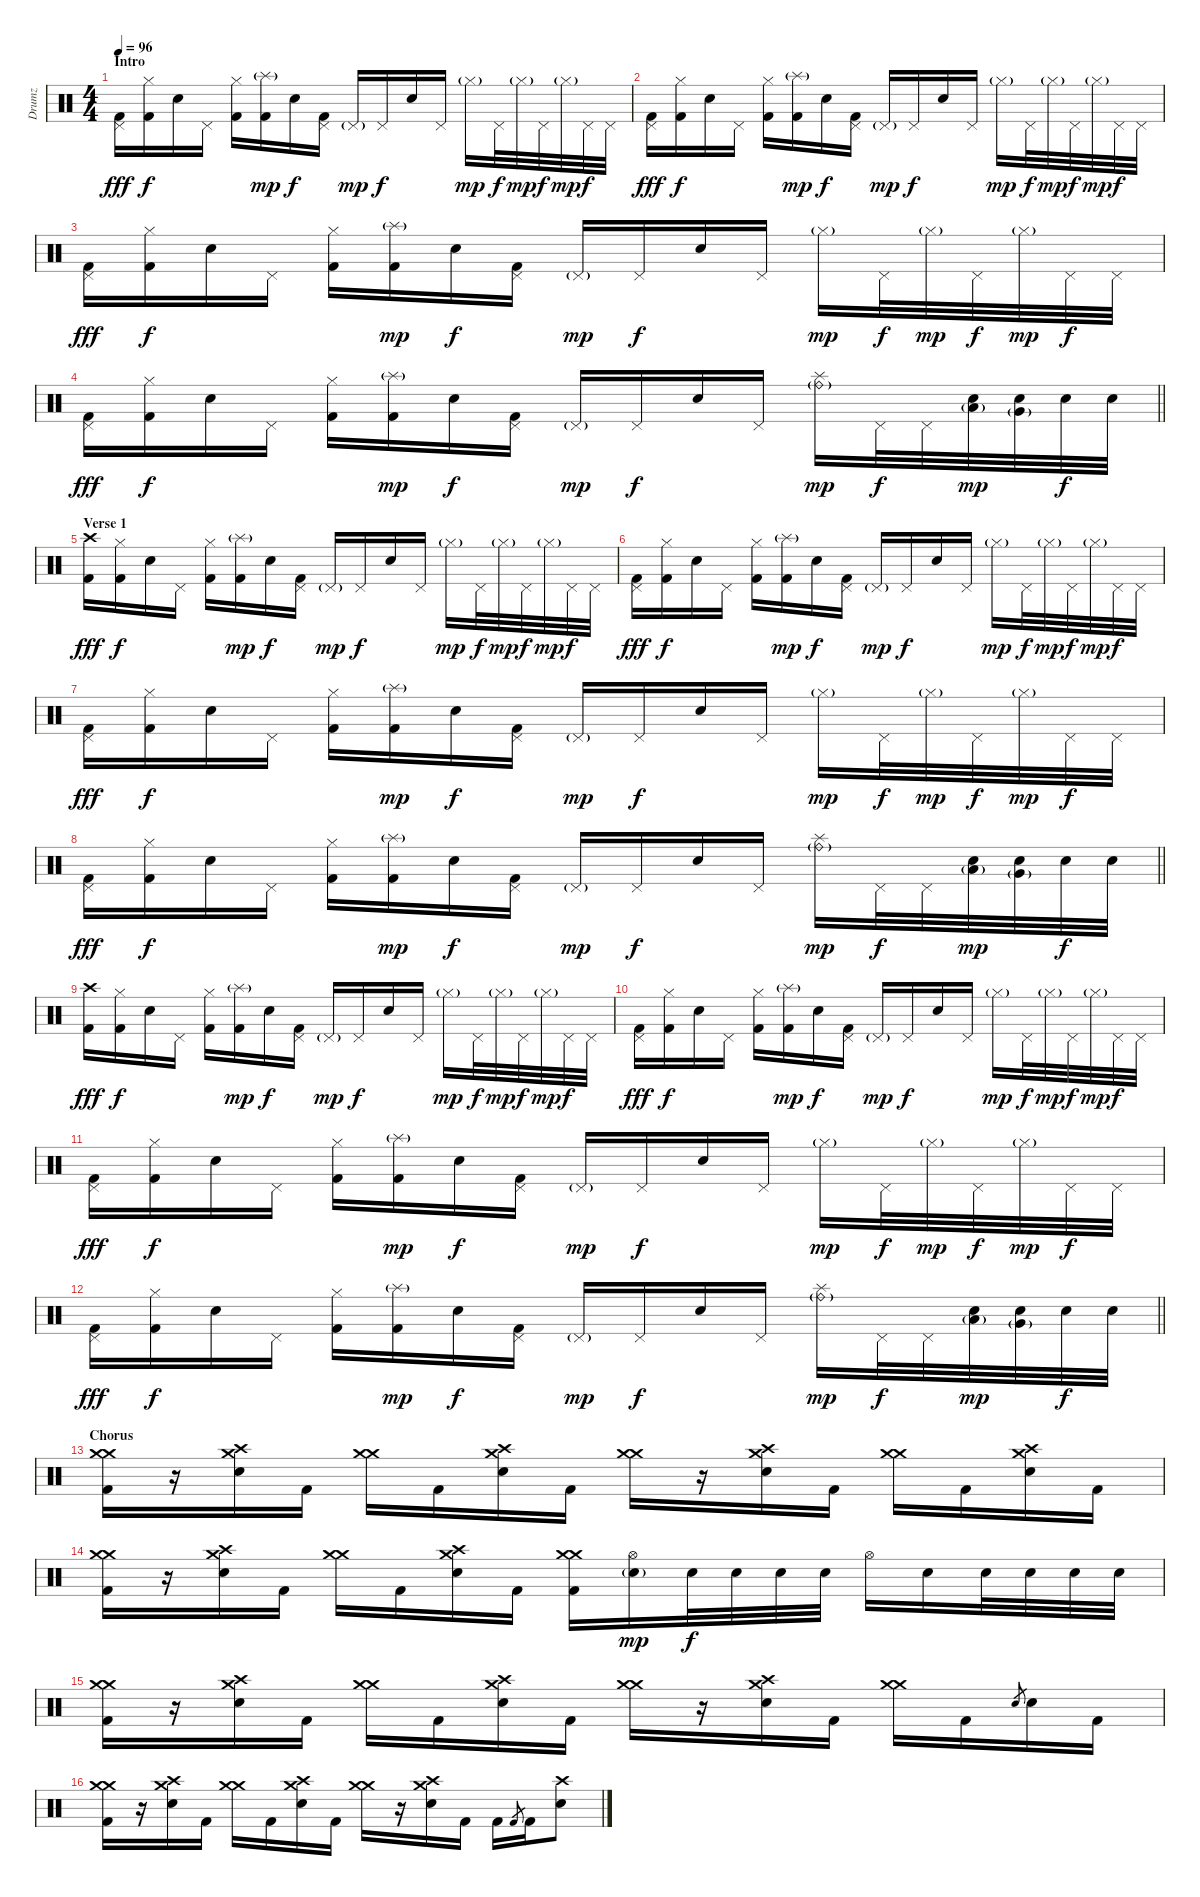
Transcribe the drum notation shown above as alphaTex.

\track ("Drumz" "Drumz") {instrument percussion}
\staff {score}
\articulation defaults
\ts (4 4)
\section ("" "Intro")
\tempo 96
\clef neutral
\ks c
("Pedal Hi-Hat (hit)" "Kick (hit) 2").16{dy fff} ("Hi-Hat (closed)" "Kick (hit) 2").16{dy f} "Electric Snare (hit)".16 "Pedal Hi-Hat (hit)".16 ("Hi-Hat (closed)" "Kick (hit) 2").16 ("Splash (hit)"{g} "Kick (hit) 2").16{dy mp} "Electric Snare (hit)".16{dy f} ("Pedal Hi-Hat (hit)" "Kick (hit) 2").16 "Pedal Hi-Hat (hit)"{g}.16{dy mp} "Pedal Hi-Hat (hit)".16{dy f} "Electric Snare (hit)".16 "Pedal Hi-Hat (hit)".16 "Hi-Hat (closed)"{g}.16{dy mp} "Pedal Hi-Hat (hit)".32{dy f} "Hi-Hat (closed)"{g}.32{dy mp} "Pedal Hi-Hat (hit)".32{dy f} "Hi-Hat (closed)"{g}.32{dy mp} "Pedal Hi-Hat (hit)".32{dy f} "Pedal Hi-Hat (hit)".32 |
("Pedal Hi-Hat (hit)" "Kick (hit) 2").16{dy fff} ("Hi-Hat (closed)" "Kick (hit) 2").16{dy f} "Electric Snare (hit)".16 "Pedal Hi-Hat (hit)".16 ("Hi-Hat (closed)" "Kick (hit) 2").16 ("Splash (hit)"{g} "Kick (hit) 2").16{dy mp} "Electric Snare (hit)".16{dy f} ("Pedal Hi-Hat (hit)" "Kick (hit) 2").16 "Pedal Hi-Hat (hit)"{g}.16{dy mp} "Pedal Hi-Hat (hit)".16{dy f} "Electric Snare (hit)".16 "Pedal Hi-Hat (hit)".16 "Hi-Hat (closed)"{g}.16{dy mp} "Pedal Hi-Hat (hit)".32{dy f} "Hi-Hat (closed)"{g}.32{dy mp} "Pedal Hi-Hat (hit)".32{dy f} "Hi-Hat (closed)"{g}.32{dy mp} "Pedal Hi-Hat (hit)".32{dy f} "Pedal Hi-Hat (hit)".32 |
("Pedal Hi-Hat (hit)" "Kick (hit) 2").16{dy fff} ("Hi-Hat (closed)" "Kick (hit) 2").16{dy f} "Electric Snare (hit)".16 "Pedal Hi-Hat (hit)".16 ("Hi-Hat (closed)" "Kick (hit) 2").16 ("Splash (hit)"{g} "Kick (hit) 2").16{dy mp} "Electric Snare (hit)".16{dy f} ("Pedal Hi-Hat (hit)" "Kick (hit) 2").16 "Pedal Hi-Hat (hit)"{g}.16{dy mp} "Pedal Hi-Hat (hit)".16{dy f} "Electric Snare (hit)".16 "Pedal Hi-Hat (hit)".16 "Hi-Hat (closed)"{g}.16{dy mp} "Pedal Hi-Hat (hit)".32{dy f} "Hi-Hat (closed)"{g}.32{dy mp} "Pedal Hi-Hat (hit)".32{dy f} "Hi-Hat (closed)"{g}.32{dy mp} "Pedal Hi-Hat (hit)".32{dy f} "Pedal Hi-Hat (hit)".32 |
\barLineRight lightlight
("Pedal Hi-Hat (hit)" "Kick (hit) 2").16{dy fff} ("Hi-Hat (closed)" "Kick (hit) 2").16{dy f} "Electric Snare (hit)".16 "Pedal Hi-Hat (hit)".16 ("Hi-Hat (closed)" "Kick (hit) 2").16 ("Splash (hit)"{g} "Kick (hit) 2").16{dy mp} "Electric Snare (hit)".16{dy f} ("Pedal Hi-Hat (hit)" "Kick (hit) 2").16 "Pedal Hi-Hat (hit)"{g}.16{dy mp} "Pedal Hi-Hat (hit)".16{dy f} "Electric Snare (hit)".16 "Pedal Hi-Hat (hit)".16 ("Ride (bell)"{g} "Splash (hit)").16{dy mp} "Pedal Hi-Hat (hit)".32{dy f} "Pedal Hi-Hat (hit)".32 ("Low Floor Tom (hit)"{g} "Electric Snare (hit)").32{dy mp} ("Very Low Tom (hit)"{g} "Electric Snare (hit)").32 "Electric Snare (hit)".32{dy f} "Electric Snare (hit)".32 |
\section ("" "Verse 1")
("Crash high (hit)" "Kick (hit) 2").16{dy fff} ("Hi-Hat (closed)" "Kick (hit) 2").16{dy f} "Electric Snare (hit)".16 "Pedal Hi-Hat (hit)".16 ("Hi-Hat (closed)" "Kick (hit) 2").16 ("Splash (hit)"{g} "Kick (hit) 2").16{dy mp} "Electric Snare (hit)".16{dy f} ("Pedal Hi-Hat (hit)" "Kick (hit) 2").16 "Pedal Hi-Hat (hit)"{g}.16{dy mp} "Pedal Hi-Hat (hit)".16{dy f} "Electric Snare (hit)".16 "Pedal Hi-Hat (hit)".16 "Hi-Hat (closed)"{g}.16{dy mp} "Pedal Hi-Hat (hit)".32{dy f} "Hi-Hat (closed)"{g}.32{dy mp} "Pedal Hi-Hat (hit)".32{dy f} "Hi-Hat (closed)"{g}.32{dy mp} "Pedal Hi-Hat (hit)".32{dy f} "Pedal Hi-Hat (hit)".32 |
("Pedal Hi-Hat (hit)" "Kick (hit) 2").16{dy fff} ("Hi-Hat (closed)" "Kick (hit) 2").16{dy f} "Electric Snare (hit)".16 "Pedal Hi-Hat (hit)".16 ("Hi-Hat (closed)" "Kick (hit) 2").16 ("Splash (hit)"{g} "Kick (hit) 2").16{dy mp} "Electric Snare (hit)".16{dy f} ("Pedal Hi-Hat (hit)" "Kick (hit) 2").16 "Pedal Hi-Hat (hit)"{g}.16{dy mp} "Pedal Hi-Hat (hit)".16{dy f} "Electric Snare (hit)".16 "Pedal Hi-Hat (hit)".16 "Hi-Hat (closed)"{g}.16{dy mp} "Pedal Hi-Hat (hit)".32{dy f} "Hi-Hat (closed)"{g}.32{dy mp} "Pedal Hi-Hat (hit)".32{dy f} "Hi-Hat (closed)"{g}.32{dy mp} "Pedal Hi-Hat (hit)".32{dy f} "Pedal Hi-Hat (hit)".32 |
("Pedal Hi-Hat (hit)" "Kick (hit) 2").16{dy fff} ("Hi-Hat (closed)" "Kick (hit) 2").16{dy f} "Electric Snare (hit)".16 "Pedal Hi-Hat (hit)".16 ("Hi-Hat (closed)" "Kick (hit) 2").16 ("Splash (hit)"{g} "Kick (hit) 2").16{dy mp} "Electric Snare (hit)".16{dy f} ("Pedal Hi-Hat (hit)" "Kick (hit) 2").16 "Pedal Hi-Hat (hit)"{g}.16{dy mp} "Pedal Hi-Hat (hit)".16{dy f} "Electric Snare (hit)".16 "Pedal Hi-Hat (hit)".16 "Hi-Hat (closed)"{g}.16{dy mp} "Pedal Hi-Hat (hit)".32{dy f} "Hi-Hat (closed)"{g}.32{dy mp} "Pedal Hi-Hat (hit)".32{dy f} "Hi-Hat (closed)"{g}.32{dy mp} "Pedal Hi-Hat (hit)".32{dy f} "Pedal Hi-Hat (hit)".32 |
\barLineRight lightlight
("Pedal Hi-Hat (hit)" "Kick (hit) 2").16{dy fff} ("Hi-Hat (closed)" "Kick (hit) 2").16{dy f} "Electric Snare (hit)".16 "Pedal Hi-Hat (hit)".16 ("Hi-Hat (closed)" "Kick (hit) 2").16 ("Splash (hit)"{g} "Kick (hit) 2").16{dy mp} "Electric Snare (hit)".16{dy f} ("Pedal Hi-Hat (hit)" "Kick (hit) 2").16 "Pedal Hi-Hat (hit)"{g}.16{dy mp} "Pedal Hi-Hat (hit)".16{dy f} "Electric Snare (hit)".16 "Pedal Hi-Hat (hit)".16 ("Ride (bell)"{g} "Splash (hit)").16{dy mp} "Pedal Hi-Hat (hit)".32{dy f} "Pedal Hi-Hat (hit)".32 ("Low Floor Tom (hit)"{g} "Electric Snare (hit)").32{dy mp} ("Very Low Tom (hit)"{g} "Electric Snare (hit)").32 "Electric Snare (hit)".32{dy f} "Electric Snare (hit)".32 |
("Crash high (hit)" "Kick (hit) 2").16{dy fff} ("Hi-Hat (closed)" "Kick (hit) 2").16{dy f} "Electric Snare (hit)".16 "Pedal Hi-Hat (hit)".16 ("Hi-Hat (closed)" "Kick (hit) 2").16 ("Splash (hit)"{g} "Kick (hit) 2").16{dy mp} "Electric Snare (hit)".16{dy f} ("Pedal Hi-Hat (hit)" "Kick (hit) 2").16 "Pedal Hi-Hat (hit)"{g}.16{dy mp} "Pedal Hi-Hat (hit)".16{dy f} "Electric Snare (hit)".16 "Pedal Hi-Hat (hit)".16 "Hi-Hat (closed)"{g}.16{dy mp} "Pedal Hi-Hat (hit)".32{dy f} "Hi-Hat (closed)"{g}.32{dy mp} "Pedal Hi-Hat (hit)".32{dy f} "Hi-Hat (closed)"{g}.32{dy mp} "Pedal Hi-Hat (hit)".32{dy f} "Pedal Hi-Hat (hit)".32 |
("Pedal Hi-Hat (hit)" "Kick (hit) 2").16{dy fff} ("Hi-Hat (closed)" "Kick (hit) 2").16{dy f} "Electric Snare (hit)".16 "Pedal Hi-Hat (hit)".16 ("Hi-Hat (closed)" "Kick (hit) 2").16 ("Splash (hit)"{g} "Kick (hit) 2").16{dy mp} "Electric Snare (hit)".16{dy f} ("Pedal Hi-Hat (hit)" "Kick (hit) 2").16 "Pedal Hi-Hat (hit)"{g}.16{dy mp} "Pedal Hi-Hat (hit)".16{dy f} "Electric Snare (hit)".16 "Pedal Hi-Hat (hit)".16 "Hi-Hat (closed)"{g}.16{dy mp} "Pedal Hi-Hat (hit)".32{dy f} "Hi-Hat (closed)"{g}.32{dy mp} "Pedal Hi-Hat (hit)".32{dy f} "Hi-Hat (closed)"{g}.32{dy mp} "Pedal Hi-Hat (hit)".32{dy f} "Pedal Hi-Hat (hit)".32 |
("Pedal Hi-Hat (hit)" "Kick (hit) 2").16{dy fff} ("Hi-Hat (closed)" "Kick (hit) 2").16{dy f} "Electric Snare (hit)".16 "Pedal Hi-Hat (hit)".16 ("Hi-Hat (closed)" "Kick (hit) 2").16 ("Splash (hit)"{g} "Kick (hit) 2").16{dy mp} "Electric Snare (hit)".16{dy f} ("Pedal Hi-Hat (hit)" "Kick (hit) 2").16 "Pedal Hi-Hat (hit)"{g}.16{dy mp} "Pedal Hi-Hat (hit)".16{dy f} "Electric Snare (hit)".16 "Pedal Hi-Hat (hit)".16 "Hi-Hat (closed)"{g}.16{dy mp} "Pedal Hi-Hat (hit)".32{dy f} "Hi-Hat (closed)"{g}.32{dy mp} "Pedal Hi-Hat (hit)".32{dy f} "Hi-Hat (closed)"{g}.32{dy mp} "Pedal Hi-Hat (hit)".32{dy f} "Pedal Hi-Hat (hit)".32 |
\barLineRight lightlight
("Pedal Hi-Hat (hit)" "Kick (hit) 2").16{dy fff} ("Hi-Hat (closed)" "Kick (hit) 2").16{dy f} "Electric Snare (hit)".16 "Pedal Hi-Hat (hit)".16 ("Hi-Hat (closed)" "Kick (hit) 2").16 ("Splash (hit)"{g} "Kick (hit) 2").16{dy mp} "Electric Snare (hit)".16{dy f} ("Pedal Hi-Hat (hit)" "Kick (hit) 2").16 "Pedal Hi-Hat (hit)"{g}.16{dy mp} "Pedal Hi-Hat (hit)".16{dy f} "Electric Snare (hit)".16 "Pedal Hi-Hat (hit)".16 ("Ride (bell)"{g} "Splash (hit)").16{dy mp} "Pedal Hi-Hat (hit)".32{dy f} "Pedal Hi-Hat (hit)".32 ("Low Floor Tom (hit)"{g} "Electric Snare (hit)").32{dy mp} ("Very Low Tom (hit)"{g} "Electric Snare (hit)").32 "Electric Snare (hit)".32{dy f} "Electric Snare (hit)".32 |
\section ("" "Chorus")
("Crash medium (hit)" "Crash medium (hit)" "Kick (hit) 2").16 r.16 ("Crash high (hit)" "Crash medium (hit)" "Electric Snare (hit)").16 "Kick (hit) 2".16 ("Crash medium (hit)" "Crash medium (hit)").16 "Kick (hit) 2".16 ("Crash high (hit)" "Crash medium (hit)" "Electric Snare (hit)").16 "Kick (hit) 2".16 ("Crash medium (hit)" "Crash medium (hit)").16 r.16 ("Crash high (hit)" "Crash medium (hit)" "Electric Snare (hit)").16 "Kick (hit) 2".16 ("Crash medium (hit)" "Crash medium (hit)").16 "Kick (hit) 2".16 ("Crash high (hit)" "Crash medium (hit)" "Electric Snare (hit)").16 "Kick (hit) 2".16 |
("Crash medium (hit)" "Crash medium (hit)" "Kick (hit) 2").16 r.16 ("Crash high (hit)" "Crash medium (hit)" "Electric Snare (hit)").16 "Kick (hit) 2".16 ("Crash medium (hit)" "Crash medium (hit)").16 "Kick (hit) 2".16 ("Crash high (hit)" "Crash medium (hit)" "Electric Snare (hit)").16 "Kick (hit) 2".16 ("Crash medium (hit)" "Crash medium (hit)" "Kick (hit) 2").16 ("Hi-Hat (open)" "Electric Snare (hit)"{g}).16{dy mp} "Electric Snare (hit)".32{dy f} "Electric Snare (hit)".32 "Electric Snare (hit)".32 "Electric Snare (hit)".32 "Hi-Hat (open)".16 "Electric Snare (hit)".16 "Electric Snare (hit)".32 "Electric Snare (hit)".32 "Electric Snare (hit)".32 "Electric Snare (hit)".32 |
("Crash medium (hit)" "Crash medium (hit)" "Kick (hit) 2").16 r.16 ("Crash high (hit)" "Crash medium (hit)" "Electric Snare (hit)").16 "Kick (hit) 2".16 ("Crash medium (hit)" "Crash medium (hit)").16 "Kick (hit) 2".16 ("Crash high (hit)" "Crash medium (hit)" "Electric Snare (hit)").16 "Kick (hit) 2".16 ("Crash medium (hit)" "Crash medium (hit)").16 r.16 ("Crash high (hit)" "Crash medium (hit)" "Electric Snare (hit)").16 "Kick (hit) 2".16 ("Crash medium (hit)" "Crash medium (hit)").16 "Kick (hit) 2".16 "Electric Snare (hit)".8{gr} "Electric Snare (hit)".16 "Kick (hit) 2".16 |
("Crash medium (hit)" "Crash medium (hit)" "Kick (hit) 2").16 r.16 ("Crash high (hit)" "Crash medium (hit)" "Electric Snare (hit)").16 "Kick (hit) 2".16 ("Crash medium (hit)" "Crash medium (hit)").16 "Kick (hit) 2".16 ("Crash high (hit)" "Crash medium (hit)" "Electric Snare (hit)").16 "Kick (hit) 2".16 ("Crash medium (hit)" "Crash medium (hit)").16 r.16 ("Crash high (hit)" "Crash medium (hit)" "Electric Snare (hit)").16 "Kick (hit) 2".16 "Kick (hit) 2".16 "Kick (hit) 2".8{gr} "Kick (hit) 2".16 ("Crash high (hit)" "Electric Snare (hit)").8
